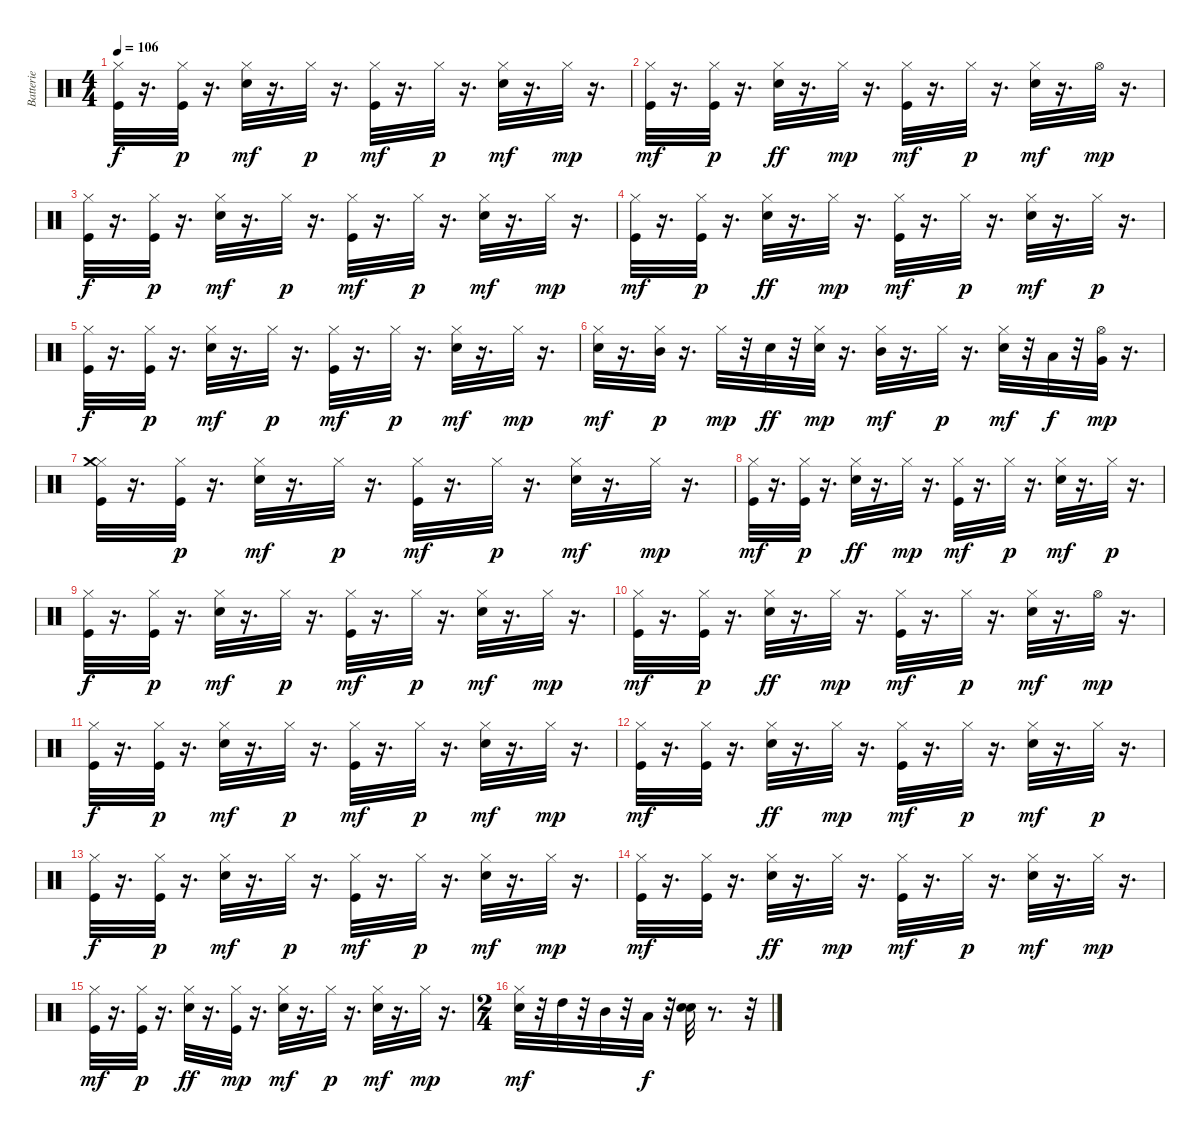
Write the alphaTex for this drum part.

\track ("Batterie" "Batterie") {instrument percussion}
\staff {score}
\articulation defaults
\ts (4 4)
\tempo 106
\clef neutral
\ks c
("Hi-Hat (closed)" "Kick (hit)").32{dy f} r.16{d} ("Hi-Hat (closed)" "Kick (hit)").32{dy p} r.16{d} ("Hi-Hat (closed)" "Electric Snare (hit)").32{dy mf} r.16{d} "Hi-Hat (closed)".32{dy p} r.16{d} ("Hi-Hat (closed)" "Kick (hit)").32{dy mf} r.16{d} "Hi-Hat (closed)".32{dy p} r.16{d} ("Hi-Hat (closed)" "Electric Snare (hit)").32{dy mf} r.16{d} "Hi-Hat (closed)".32{dy mp} r.16{d} |
("Hi-Hat (closed)" "Kick (hit)").32{dy mf} r.16{d} ("Kick (hit)" "Hi-Hat (closed)").32{dy p} r.16{d} ("Hi-Hat (closed)" "Electric Snare (hit)").32{dy ff} r.16{d} "Hi-Hat (closed)".32{dy mp} r.16{d} ("Hi-Hat (closed)" "Kick (hit)").32{dy mf} r.16{d} "Hi-Hat (closed)".32{dy p} r.16{d} ("Hi-Hat (closed)" "Electric Snare (hit)").32{dy mf} r.16{d} "Hi-Hat (open)".32{dy mp} r.16{d} |
("Hi-Hat (closed)" "Kick (hit)").32{dy f} r.16{d} ("Hi-Hat (closed)" "Kick (hit)").32{dy p} r.16{d} ("Hi-Hat (closed)" "Electric Snare (hit)").32{dy mf} r.16{d} "Hi-Hat (closed)".32{dy p} r.16{d} ("Hi-Hat (closed)" "Kick (hit)").32{dy mf} r.16{d} "Hi-Hat (closed)".32{dy p} r.16{d} ("Hi-Hat (closed)" "Electric Snare (hit)").32{dy mf} r.16{d} "Hi-Hat (closed)".32{dy mp} r.16{d} |
("Hi-Hat (closed)" "Kick (hit)").32{dy mf} r.16{d} ("Kick (hit)" "Hi-Hat (closed)").32{dy p} r.16{d} ("Hi-Hat (closed)" "Electric Snare (hit)").32{dy ff} r.16{d} "Hi-Hat (closed)".32{dy mp} r.16{d} ("Hi-Hat (closed)" "Kick (hit)").32{dy mf} r.16{d} "Hi-Hat (closed)".32{dy p} r.16{d} ("Hi-Hat (closed)" "Electric Snare (hit)").32{dy mf} r.16{d} "Hi-Hat (closed)".32{dy p} r.16{d} |
("Hi-Hat (closed)" "Kick (hit)").32{dy f} r.16{d} ("Hi-Hat (closed)" "Kick (hit)").32{dy p} r.16{d} ("Hi-Hat (closed)" "Electric Snare (hit)").32{dy mf} r.16{d} "Hi-Hat (closed)".32{dy p} r.16{d} ("Hi-Hat (closed)" "Kick (hit)").32{dy mf} r.16{d} "Hi-Hat (closed)".32{dy p} r.16{d} ("Hi-Hat (closed)" "Electric Snare (hit)").32{dy mf} r.16{d} "Hi-Hat (closed)".32{dy mp} r.16{d} |
("Electric Snare (hit)" "Hi-Hat (closed)").32{dy mf} r.16{d} ("Mid Tom (hit)" "Hi-Hat (closed)").32{dy p} r.16{d} "Hi-Hat (closed)".32{dy mp} r.32 "Electric Snare (hit)".32{dy ff} r.32 ("Electric Snare (hit)" "Hi-Hat (closed)").32{dy mp} r.16{d} ("Hi-Hat (closed)" "Mid Tom (hit)").32{dy mf} r.16{d} "Hi-Hat (closed)".32{dy p} r.16{d} ("Hi-Hat (closed)" "Electric Snare (hit)").32{dy mf} r.32 "Low Tom (hit)".32{dy f} r.32 ("Very Low Tom (hit)" "Hi-Hat (open)").32{dy mp} r.16{d} |
("Hi-Hat (closed)" "Crash medium (hit)" "Kick (hit)").32 r.16{d} ("Hi-Hat (closed)" "Kick (hit)").32{dy p} r.16{d} ("Hi-Hat (closed)" "Electric Snare (hit)").32{dy mf} r.16{d} "Hi-Hat (closed)".32{dy p} r.16{d} ("Hi-Hat (closed)" "Kick (hit)").32{dy mf} r.16{d} "Hi-Hat (closed)".32{dy p} r.16{d} ("Hi-Hat (closed)" "Electric Snare (hit)").32{dy mf} r.16{d} "Hi-Hat (closed)".32{dy mp} r.16{d} |
("Hi-Hat (closed)" "Kick (hit)").32{dy mf} r.16{d} ("Kick (hit)" "Hi-Hat (closed)").32{dy p} r.16{d} ("Hi-Hat (closed)" "Electric Snare (hit)").32{dy ff} r.16{d} "Hi-Hat (closed)".32{dy mp} r.16{d} ("Hi-Hat (closed)" "Kick (hit)").32{dy mf} r.16{d} "Hi-Hat (closed)".32{dy p} r.16{d} ("Hi-Hat (closed)" "Electric Snare (hit)").32{dy mf} r.16{d} "Hi-Hat (closed)".32{dy p} r.16{d} |
("Hi-Hat (closed)" "Kick (hit)").32{dy f} r.16{d} ("Hi-Hat (closed)" "Kick (hit)").32{dy p} r.16{d} ("Hi-Hat (closed)" "Electric Snare (hit)").32{dy mf} r.16{d} "Hi-Hat (closed)".32{dy p} r.16{d} ("Hi-Hat (closed)" "Kick (hit)").32{dy mf} r.16{d} "Hi-Hat (closed)".32{dy p} r.16{d} ("Hi-Hat (closed)" "Electric Snare (hit)").32{dy mf} r.16{d} "Hi-Hat (closed)".32{dy mp} r.16{d} |
("Hi-Hat (closed)" "Kick (hit)").32{dy mf} r.16{d} ("Kick (hit)" "Hi-Hat (closed)").32{dy p} r.16{d} ("Hi-Hat (closed)" "Electric Snare (hit)").32{dy ff} r.16{d} "Hi-Hat (closed)".32{dy mp} r.16{d} ("Hi-Hat (closed)" "Kick (hit)").32{dy mf} r.16{d} "Hi-Hat (closed)".32{dy p} r.16{d} ("Hi-Hat (closed)" "Electric Snare (hit)").32{dy mf} r.16{d} "Hi-Hat (open)".32{dy mp} r.16{d} |
("Hi-Hat (closed)" "Kick (hit)").32{dy f} r.16{d} ("Hi-Hat (closed)" "Kick (hit)").32{dy p} r.16{d} ("Hi-Hat (closed)" "Electric Snare (hit)").32{dy mf} r.16{d} "Hi-Hat (closed)".32{dy p} r.16{d} ("Hi-Hat (closed)" "Kick (hit)").32{dy mf} r.16{d} "Hi-Hat (closed)".32{dy p} r.16{d} ("Hi-Hat (closed)" "Electric Snare (hit)").32{dy mf} r.16{d} "Hi-Hat (closed)".32{dy mp} r.16{d} |
("Hi-Hat (closed)" "Kick (hit)").32{dy mf} r.16{d} ("Hi-Hat (closed)" "Kick (hit)").32 r.16{d} ("Hi-Hat (closed)" "Electric Snare (hit)").32{dy ff} r.16{d} "Hi-Hat (closed)".32{dy mp} r.16{d} ("Hi-Hat (closed)" "Kick (hit)").32{dy mf} r.16{d} "Hi-Hat (closed)".32{dy p} r.16{d} ("Hi-Hat (closed)" "Electric Snare (hit)").32{dy mf} r.16{d} "Hi-Hat (closed)".32{dy p} r.16{d} |
("Hi-Hat (closed)" "Kick (hit)").32{dy f} r.16{d} ("Hi-Hat (closed)" "Kick (hit)").32{dy p} r.16{d} ("Hi-Hat (closed)" "Electric Snare (hit)").32{dy mf} r.16{d} "Hi-Hat (closed)".32{dy p} r.16{d} ("Hi-Hat (closed)" "Kick (hit)").32{dy mf} r.16{d} "Hi-Hat (closed)".32{dy p} r.16{d} ("Hi-Hat (closed)" "Electric Snare (hit)").32{dy mf} r.16{d} "Hi-Hat (closed)".32{dy mp} r.16{d} |
("Hi-Hat (closed)" "Kick (hit)").32{dy mf} r.16{d} ("Hi-Hat (closed)" "Kick (hit)").32 r.16{d} ("Hi-Hat (closed)" "Electric Snare (hit)").32{dy ff} r.16{d} "Hi-Hat (closed)".32{dy mp} r.16{d} ("Hi-Hat (closed)" "Kick (hit)").32{dy mf} r.16{d} "Hi-Hat (closed)".32{dy p} r.16{d} ("Hi-Hat (closed)" "Electric Snare (hit)").32{dy mf} r.16{d} "Hi-Hat (closed)".32{dy mp} r.16{d} |
("Hi-Hat (closed)" "Kick (hit)").32{dy mf} r.16{d} ("Kick (hit)" "Hi-Hat (closed)").32{dy p} r.16{d} ("Hi-Hat (closed)" "Electric Snare (hit)").32{dy ff} r.16{d} ("Kick (hit)" "Hi-Hat (closed)").32{dy mp} r.16{d} ("Hi-Hat (closed)" "Electric Snare (hit)").32{dy mf} r.16{d} "Hi-Hat (closed)".32{dy p} r.16{d} ("Hi-Hat (closed)" "Electric Snare (hit)").32{dy mf} r.16{d} "Hi-Hat (closed)".32{dy mp} r.16{d} |
\ts (2 4)
("Electric Snare (hit)" "Hi-Hat (closed)").32{dy mf} r.32 "High Tom (hit)".32 r.32 "Mid Tom (hit)".32 r.32 "Low Tom (hit)".32{dy f} r.32 ("Electric Snare (hit)" "Electric Snare (hit)").32 r.8{d} r.32
